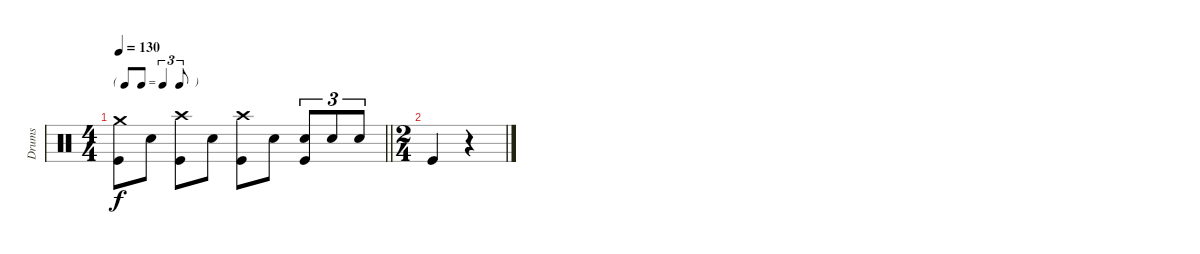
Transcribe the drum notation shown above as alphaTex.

\track ("Drums" "Drums") {instrument percussion}
\staff {score}
\articulation defaults
\ts (4 4)
\tf triplet8th
\tempo 130
\clef neutral
\barLineRight lightlight
\ks c
("Crash medium (hit)" "Kick (hit)").8{dy f} "Snare (hit) 2".8 ("Crash high (hit)" "Kick (hit)").8 "Snare (hit) 2".8 ("Crash high (hit)" "Kick (hit)").8 "Snare (hit) 2".8 ("Kick (hit)" "Snare (hit) 2").8{tu (3 2)} "Snare (hit) 2".8{tu (3 2)} "Snare (hit) 2".8{tu (3 2)} |
\ts (2 4)
"Kick (hit)".4 r.4
